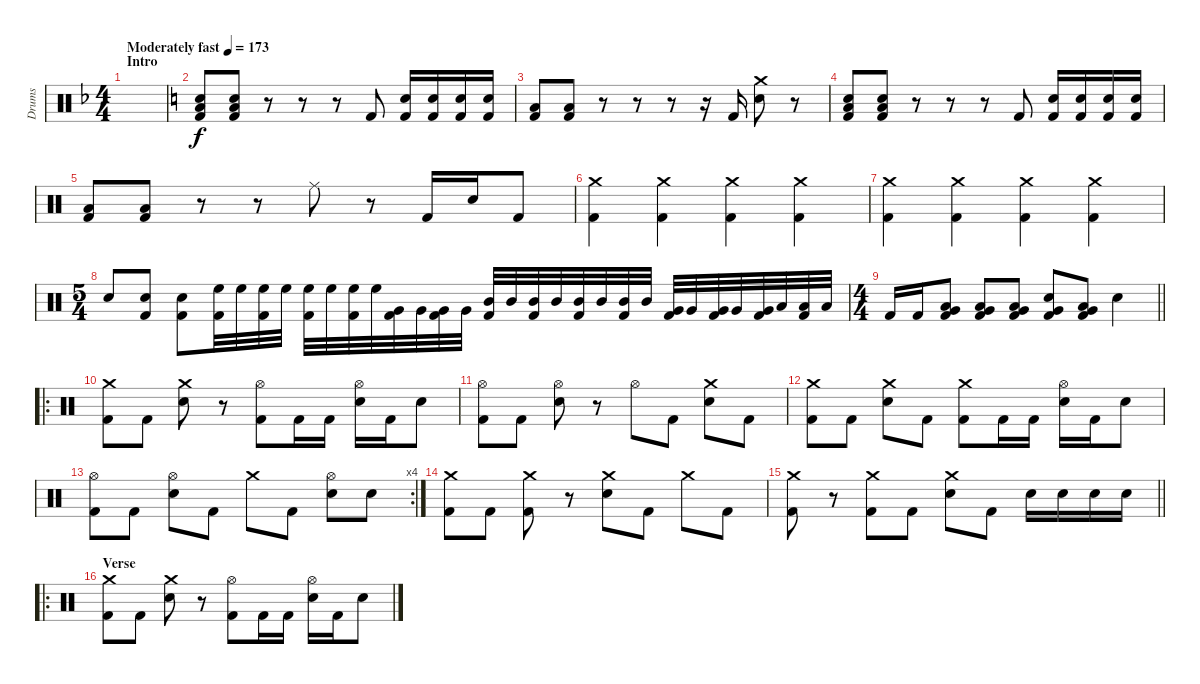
\track ("Drums" "Drums") {instrument percussion}
\staff {score}
\articulation defaults
\ts (4 4)
\section ("" "Intro")
\tempo (173 "Moderately fast")
\clef neutral
\ks f
|
\ks c
("Snare (hit) 2" "Low Floor Tom (hit)" "Kick (hit) 2").8 ("Snare (hit) 2" "Low Floor Tom (hit)" "Kick (hit) 2").8 r.8 r.8 r.8 "Kick (hit) 2".8 ("Snare (hit) 2" "Kick (hit) 2").16 ("Snare (hit) 2" "Kick (hit) 2").16 ("Snare (hit) 2" "Kick (hit) 2").16 ("Snare (hit) 2" "Kick (hit) 2").16 |
("Low Floor Tom (hit)" "Kick (hit) 2").8 ("Low Floor Tom (hit)" "Kick (hit) 2").8 r.8 r.8 r.8 r.16 "Kick (hit) 2".16 ("Crash medium (hit)" "Snare (hit) 2").8 r.8 |
("Snare (hit) 2" "Low Floor Tom (hit)" "Kick (hit) 2").8 ("Snare (hit) 2" "Low Floor Tom (hit)" "Kick (hit) 2").8 r.8 r.8 r.8 "Kick (hit) 2".8 ("Snare (hit) 2" "Kick (hit) 2").16 ("Snare (hit) 2" "Kick (hit) 2").16 ("Snare (hit) 2" "Kick (hit) 2").16 ("Snare (hit) 2" "Kick (hit) 2").16 |
("Low Floor Tom (hit)" "Kick (hit) 2").8 ("Low Floor Tom (hit)" "Kick (hit) 2").8 r.8 r.8 "Ride (middle)".8 r.8 "Kick (hit) 2".16 "Snare (hit) 2".16 "Kick (hit) 2".8 |
("Crash medium (hit)" "Kick (hit) 2").4 ("Crash medium (hit)" "Kick (hit) 2").4 ("Crash medium (hit)" "Kick (hit) 2").4 ("Crash medium (hit)" "Kick (hit) 2").4 |
("Crash medium (hit)" "Kick (hit) 2").4 ("Crash medium (hit)" "Kick (hit) 2").4 ("Crash medium (hit)" "Kick (hit) 2").4 ("Crash medium (hit)" "Kick (hit) 2").4 |
\ts (5 4)
"Snare (hit) 2".8 ("Snare (hit) 2" "Kick (hit) 2").8 ("Snare (hit) 2" "Kick (hit) 2").8 ("High Floor Tom (hit)" "Kick (hit) 2").32 "High Floor Tom (hit)".32 ("High Floor Tom (hit)" "Kick (hit) 2").32 "High Floor Tom (hit)".32 ("High Floor Tom (hit)" "Kick (hit) 2").32 "High Floor Tom (hit)".32 ("High Floor Tom (hit)" "Kick (hit) 2").32 "High Floor Tom (hit)".32 ("Very Low Tom (hit)" "Kick (hit) 2").32 "Very Low Tom (hit)".32 ("Very Low Tom (hit)" "Kick (hit) 2").32 "Very Low Tom (hit)".32 ("Mid Tom (hit)" "Kick (hit) 2").32 "Mid Tom (hit)".32 ("Mid Tom (hit)" "Kick (hit) 2").32 "Mid Tom (hit)".32 ("Mid Tom (hit)" "Kick (hit) 2").32 "Mid Tom (hit)".32 ("Mid Tom (hit)" "Kick (hit) 2").32 "Mid Tom (hit)".32 ("Very Low Tom (hit)" "Kick (hit) 2").32 "Very Low Tom (hit)".32 ("Very Low Tom (hit)" "Kick (hit) 2").32 "Very Low Tom (hit)".32 ("Very Low Tom (hit)" "Kick (hit) 2").32 "Low Floor Tom (hit)".32 ("Low Floor Tom (hit)" "Kick (hit) 2").32 "Low Floor Tom (hit)".32 |
\ts (4 4)
\barLineRight lightlight "Kick (hit) 2".16 "Kick (hit) 2".16
("Very Low Tom (hit)" "Low Floor Tom (hit)" "Kick (hit) 2").8 ("Very Low Tom (hit)" "Low Floor Tom (hit)" "Kick (hit) 2").8 ("Very Low Tom (hit)" "Low Floor Tom (hit)" "Kick (hit) 2").8 ("Very Low Tom (hit)" "Snare (hit) 2" "Kick (hit) 2").8 ("Very Low Tom (hit)" "Low Floor Tom (hit)" "Kick (hit) 2").8 "Snare (hit) 2".4 |
\ro
("Crash medium (hit)" "Kick (hit) 2").8 "Kick (hit) 2".8 ("Crash medium (hit)" "Snare (hit) 2").8 r.8 ("Hi-Hat (open)" "Kick (hit) 2").8 "Kick (hit) 2".16 "Kick (hit) 2".16 ("Hi-Hat (open)" "Snare (hit) 2").16 "Kick (hit) 2".16 "Snare (hit) 2".8 |
("Hi-Hat (open)" "Kick (hit) 2").8 "Kick (hit) 2".8 ("Hi-Hat (open)" "Snare (hit) 2").8 r.8 "Hi-Hat (open)".8 "Kick (hit) 2".8 ("Crash medium (hit)" "Snare (hit) 2").8 "Kick (hit) 2".8 |
("Crash medium (hit)" "Kick (hit) 2").8 "Kick (hit) 2".8 ("Crash medium (hit)" "Snare (hit) 2").8 "Kick (hit) 2".8 ("Crash medium (hit)" "Kick (hit) 2").8 "Kick (hit) 2".16 "Kick (hit) 2".16 ("Hi-Hat (open)" "Snare (hit) 2").16 "Kick (hit) 2".16 "Snare (hit) 2".8 |
\rc 4
("Hi-Hat (open)" "Kick (hit) 2").8 "Kick (hit) 2".8 ("Hi-Hat (open)" "Snare (hit) 2").8 "Kick (hit) 2".8 "Crash medium (hit)".8 "Kick (hit) 2".8 ("Hi-Hat (open)" "Snare (hit) 2").8 "Snare (hit) 2".8 |
("Crash medium (hit)" "Kick (hit) 2").8 "Kick (hit) 2".8 ("Crash medium (hit)" "Kick (hit) 2").8 r.8 ("Crash medium (hit)" "Snare (hit) 2").8 "Kick (hit) 2".8 "Crash medium (hit)".8 "Kick (hit) 2".8 |
\barLineRight lightlight
("Crash medium (hit)" "Kick (hit) 2").8 r.8 ("Crash medium (hit)" "Kick (hit) 2").8 "Kick (hit) 2".8 ("Crash medium (hit)" "Snare (hit) 2").8 "Kick (hit) 2".8 "Snare (hit) 2".16 "Snare (hit) 2".16 "Snare (hit) 2".16 "Snare (hit) 2".16 |
\ro
\section ("" "Verse")
("Crash medium (hit)" "Kick (hit) 2").8 "Kick (hit) 2".8 ("Crash medium (hit)" "Snare (hit) 2").8 r.8 ("Hi-Hat (open)" "Kick (hit) 2").8 "Kick (hit) 2".16 "Kick (hit) 2".16 ("Hi-Hat (open)" "Snare (hit) 2").16 "Kick (hit) 2".16 "Snare (hit) 2".8
